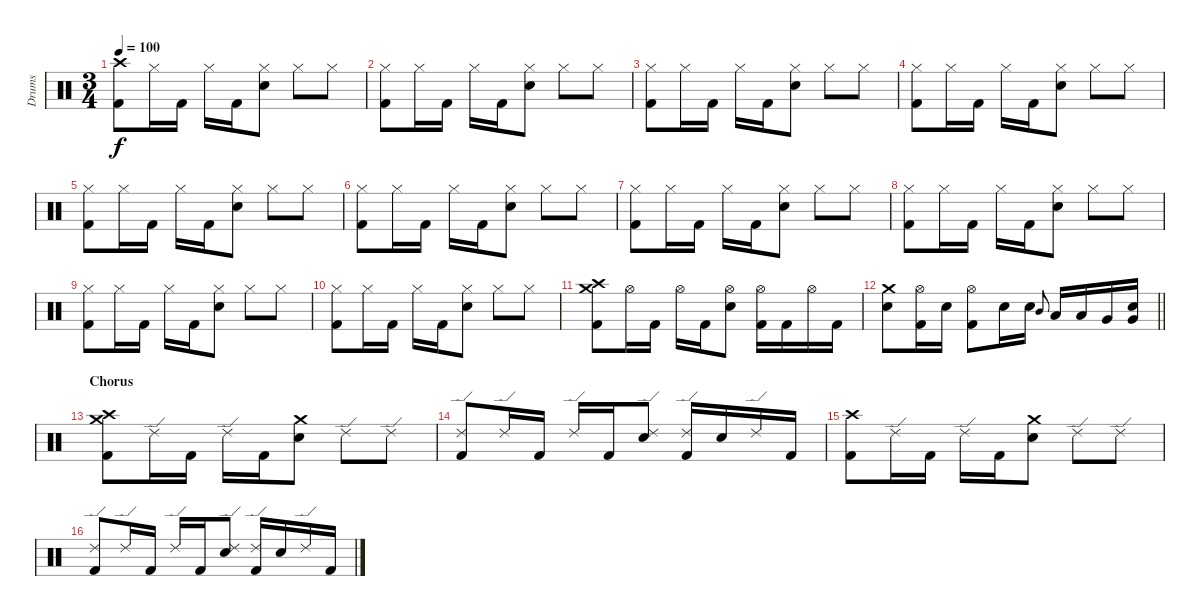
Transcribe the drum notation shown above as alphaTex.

\track ("Drums" "Drums") {instrument percussion}
\staff {score}
\articulation defaults
\ts (3 4)
\tempo 100
\clef neutral
\ks c
("Crash high (hit)" "Kick (hit) 2").8{dy f} "Hi-Hat (closed)".16 "Kick (hit) 2".16 "Hi-Hat (closed)".16 "Kick (hit) 2".16 ("Hi-Hat (closed)" "Electric Snare (hit)").8 "Hi-Hat (closed)".8 "Hi-Hat (closed)".8 |
("Hi-Hat (closed)" "Kick (hit) 2").8 "Hi-Hat (closed)".16 "Kick (hit) 2".16 "Hi-Hat (closed)".16 "Kick (hit) 2".16 ("Hi-Hat (closed)" "Electric Snare (hit)").8 "Hi-Hat (closed)".8 "Hi-Hat (closed)".8 |
("Hi-Hat (closed)" "Kick (hit) 2").8 "Hi-Hat (closed)".16 "Kick (hit) 2".16 "Hi-Hat (closed)".16 "Kick (hit) 2".16 ("Hi-Hat (closed)" "Electric Snare (hit)").8 "Hi-Hat (closed)".8 "Hi-Hat (closed)".8 |
("Hi-Hat (closed)" "Kick (hit) 2").8 "Hi-Hat (closed)".16 "Kick (hit) 2".16 "Hi-Hat (closed)".16 "Kick (hit) 2".16 ("Hi-Hat (closed)" "Electric Snare (hit)").8 "Hi-Hat (closed)".8 "Hi-Hat (closed)".8 |
("Hi-Hat (closed)" "Kick (hit) 2").8 "Hi-Hat (closed)".16 "Kick (hit) 2".16 "Hi-Hat (closed)".16 "Kick (hit) 2".16 ("Hi-Hat (closed)" "Electric Snare (hit)").8 "Hi-Hat (closed)".8 "Hi-Hat (closed)".8 |
("Hi-Hat (closed)" "Kick (hit) 2").8 "Hi-Hat (closed)".16 "Kick (hit) 2".16 "Hi-Hat (closed)".16 "Kick (hit) 2".16 ("Hi-Hat (closed)" "Electric Snare (hit)").8 "Hi-Hat (closed)".8 "Hi-Hat (closed)".8 |
("Hi-Hat (closed)" "Kick (hit) 2").8 "Hi-Hat (closed)".16 "Kick (hit) 2".16 "Hi-Hat (closed)".16 "Kick (hit) 2".16 ("Hi-Hat (closed)" "Electric Snare (hit)").8 "Hi-Hat (closed)".8 "Hi-Hat (closed)".8 |
("Hi-Hat (closed)" "Kick (hit) 2").8 "Hi-Hat (closed)".16 "Kick (hit) 2".16 "Hi-Hat (closed)".16 "Kick (hit) 2".16 ("Hi-Hat (closed)" "Electric Snare (hit)").8 "Hi-Hat (closed)".8 "Hi-Hat (closed)".8 |
("Hi-Hat (closed)" "Kick (hit) 2").8 "Hi-Hat (closed)".16 "Kick (hit) 2".16 "Hi-Hat (closed)".16 "Kick (hit) 2".16 ("Hi-Hat (closed)" "Electric Snare (hit)").8 "Hi-Hat (closed)".8 "Hi-Hat (closed)".8 |
("Hi-Hat (closed)" "Kick (hit) 2").8 "Hi-Hat (closed)".16 "Kick (hit) 2".16 "Hi-Hat (closed)".16 "Kick (hit) 2".16 ("Hi-Hat (closed)" "Electric Snare (hit)").8 "Hi-Hat (closed)".8 "Hi-Hat (closed)".8 |
("Crash medium (hit)" "Crash high (hit)" "Kick (hit) 2").8 "Hi-Hat (open)".16 "Kick (hit) 2".16 "Hi-Hat (open)".16 "Kick (hit) 2".16 ("Hi-Hat (open)" "Electric Snare (hit)").8 ("Hi-Hat (open)" "Kick (hit) 2").16 "Kick (hit) 2".16 "Hi-Hat (open)".16 "Kick (hit) 2".16 |
\barLineRight lightlight
("Crash medium (hit)" "Electric Snare (hit)").8 ("Hi-Hat (open)" "Kick (hit) 2").16 "Electric Snare (hit)".16 ("Hi-Hat (open)" "Kick (hit) 2").8 "Electric Snare (hit)".16 "Electric Snare (hit)".16 "Mid Tom (hit)".8{gr onbeat} "Low Tom (hit)".16 "Low Tom (hit)".16 "Very Low Tom (hit)".16 ("Electric Snare (hit)" "Very Low Tom (hit)").16 |
\section ("" "Chorus")
("Crash high (hit)" "Crash medium (hit)" "Kick (hit) 2").8 "Ride (edge) 2".16 "Kick (hit) 2".16 "Ride (edge) 2".16 "Kick (hit) 2".16 ("Crash medium (hit)" "Electric Snare (hit)").8 "Ride (edge) 2".8 "Ride (edge) 2".8 |
("Ride (edge) 2" "Kick (hit) 2").8 "Ride (edge) 2".16 "Kick (hit) 2".16 "Ride (edge) 2".16 "Kick (hit) 2".16 ("Ride (edge) 2" "Electric Snare (hit)").8 ("Ride (edge) 2" "Kick (hit) 2").16 "Electric Snare (hit)".16 "Ride (edge) 2".16 "Kick (hit) 2".16 |
("Crash high (hit)" "Kick (hit) 2").8 "Ride (edge) 2".16 "Kick (hit) 2".16 "Ride (edge) 2".16 "Kick (hit) 2".16 ("Crash medium (hit)" "Electric Snare (hit)").8 "Ride (edge) 2".8 "Ride (edge) 2".8 |
("Ride (edge) 2" "Kick (hit) 2").8 "Ride (edge) 2".16 "Kick (hit) 2".16 "Ride (edge) 2".16 "Kick (hit) 2".16 ("Ride (edge) 2" "Electric Snare (hit)").8 ("Ride (edge) 2" "Kick (hit) 2").16 "Electric Snare (hit)".16 "Ride (edge) 2".16 "Kick (hit) 2".16
